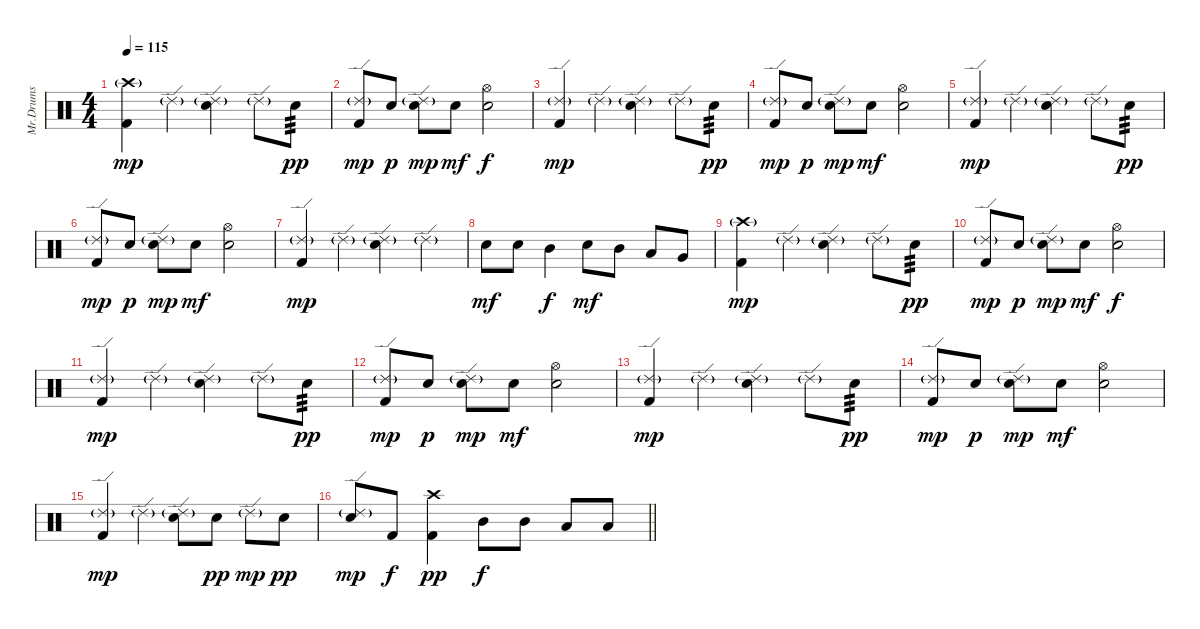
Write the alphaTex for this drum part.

\track ("Mr.Drums" "Mr.Drums") {instrument percussion}
\staff {score}
\articulation defaults
\ts (4 4)
\tempo 115
\clef neutral
\ks c
("Crash high (hit)"{g} "Kick (hit) 2").4{dy mp} "Ride (edge) 2"{g}.4 ("Ride (edge) 2"{g} "Electric Snare (hit)").4 "Ride (edge) 2"{g}.8 "Electric Snare (hit)".8{tp 3 dy pp} |
("Ride (edge) 2"{g} "Kick (hit) 2").8{dy mp} "Electric Snare (hit)".8{dy p} ("Ride (edge) 2"{g} "Electric Snare (hit)").8{dy mp} "Electric Snare (hit)".8{dy mf} ("Hi-Hat (open)" "Electric Snare (hit)").2{dy f} |
("Ride (edge) 2"{g} "Kick (hit) 2").4{dy mp} "Ride (edge) 2"{g}.4 ("Ride (edge) 2"{g} "Electric Snare (hit)").4 "Ride (edge) 2"{g}.8 "Electric Snare (hit)".8{tp 3 dy pp} |
("Ride (edge) 2"{g} "Kick (hit) 2").8{dy mp} "Electric Snare (hit)".8{dy p} ("Ride (edge) 2"{g} "Electric Snare (hit)").8{dy mp} "Electric Snare (hit)".8{dy mf} ("Hi-Hat (open)" "Electric Snare (hit)").2 |
("Ride (edge) 2"{g} "Kick (hit) 2").4{dy mp} "Ride (edge) 2"{g}.4 ("Ride (edge) 2"{g} "Electric Snare (hit)").4 "Ride (edge) 2"{g}.8 "Electric Snare (hit)".8{tp 3 dy pp} |
("Ride (edge) 2"{g} "Kick (hit) 2").8{dy mp} "Electric Snare (hit)".8{dy p} ("Ride (edge) 2"{g} "Electric Snare (hit)").8{dy mp} "Electric Snare (hit)".8{dy mf} ("Hi-Hat (open)" "Electric Snare (hit)").2 |
("Ride (edge) 2"{g} "Kick (hit) 2").4{dy mp} "Ride (edge) 2"{g}.4 ("Ride (edge) 2"{g} "Electric Snare (hit)").4 "Ride (edge) 2"{g}.4 |
"Electric Snare (hit)".8{dy mf} "Electric Snare (hit)".8 "Mid Tom (hit)".4{dy f} "Electric Snare (hit)".8{dy mf} "Mid Tom (hit)".8 "Low Tom (hit)".8 "Very Low Tom (hit)".8 |
("Crash high (hit)"{g} "Kick (hit) 2").4{dy mp} "Ride (edge) 2"{g}.4 ("Ride (edge) 2"{g} "Electric Snare (hit)").4 "Ride (edge) 2"{g}.8 "Electric Snare (hit)".8{tp 3 dy pp} |
("Ride (edge) 2"{g} "Kick (hit) 2").8{dy mp} "Electric Snare (hit)".8{dy p} ("Ride (edge) 2"{g} "Electric Snare (hit)").8{dy mp} "Electric Snare (hit)".8{dy mf} ("Hi-Hat (open)" "Electric Snare (hit)").2{dy f} |
("Ride (edge) 2"{g} "Kick (hit) 2").4{dy mp} "Ride (edge) 2"{g}.4 ("Ride (edge) 2"{g} "Electric Snare (hit)").4 "Ride (edge) 2"{g}.8 "Electric Snare (hit)".8{tp 3 dy pp} |
("Ride (edge) 2"{g} "Kick (hit) 2").8{dy mp} "Electric Snare (hit)".8{dy p} ("Ride (edge) 2"{g} "Electric Snare (hit)").8{dy mp} "Electric Snare (hit)".8{dy mf} ("Hi-Hat (open)" "Electric Snare (hit)").2 |
("Ride (edge) 2"{g} "Kick (hit) 2").4{dy mp} "Ride (edge) 2"{g}.4 ("Ride (edge) 2"{g} "Electric Snare (hit)").4 "Ride (edge) 2"{g}.8 "Electric Snare (hit)".8{tp 3 dy pp} |
("Ride (edge) 2"{g} "Kick (hit) 2").8{dy mp} "Electric Snare (hit)".8{dy p} ("Ride (edge) 2"{g} "Electric Snare (hit)").8{dy mp} "Electric Snare (hit)".8{dy mf} ("Hi-Hat (open)" "Electric Snare (hit)").2 |
("Ride (edge) 2"{g} "Kick (hit) 2").4{dy mp} "Ride (edge) 2"{g}.4 ("Ride (edge) 2"{g} "Electric Snare (hit)").8 "Electric Snare (hit)".8{dy pp} "Ride (edge) 2"{g}.8{dy mp} "Electric Snare (hit)".8{dy pp} |
\barLineRight lightlight
("Ride (edge) 2"{g} "Electric Snare (hit)").8{dy mp} "Kick (hit) 2".8{dy f} ("Crash high (hit)" "Kick (hit) 2").4{dy pp} "Mid Tom (hit)".8{dy f} "Mid Tom (hit)".8 "Low Tom (hit)".8 "Low Tom (hit)".8
